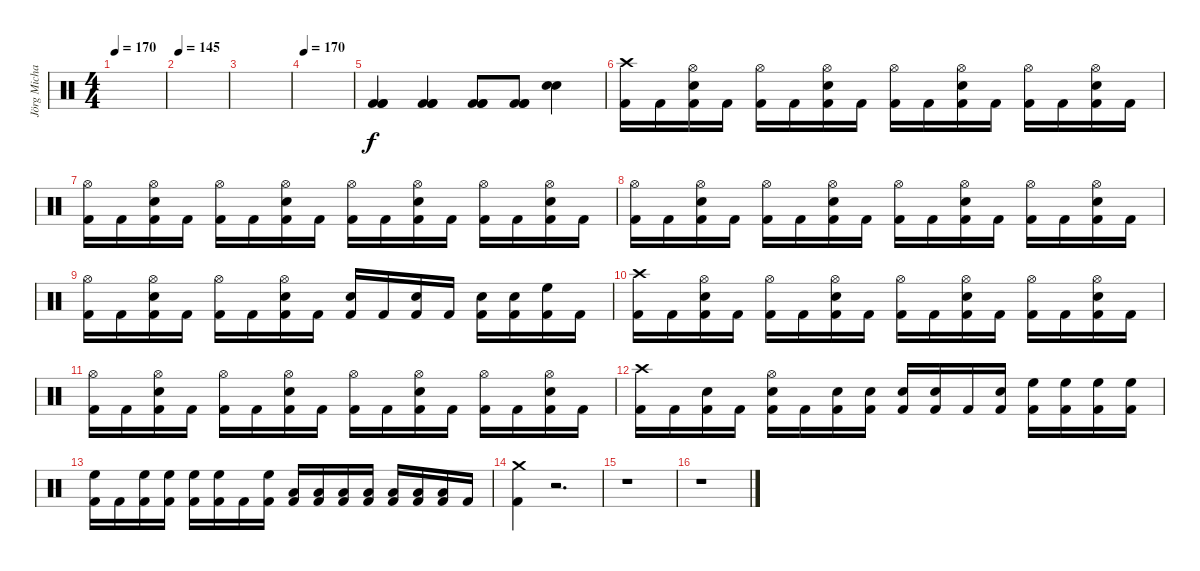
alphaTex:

\track ("Jörg Michael (Drums)" "Jörg Micha") {instrument percussion}
\staff {score}
\articulation defaults
\ts (4 4)
\tempo 170
\clef neutral
\ks c
|
\tempo 145
|
|
\tempo 170
|
("Kick (hit) 2" "Kick (hit) 2" "Kick (hit) 2").4 ("Kick (hit) 2" "Kick (hit) 2" "Kick (hit) 2").4 ("Kick (hit) 2" "Kick (hit) 2" "Kick (hit) 2").8 ("Kick (hit) 2" "Kick (hit) 2" "Kick (hit) 2").8 ("Snare (hit) 2" "Snare (hit) 2").4 |
("Kick (hit) 2" "Crash high (hit)").16 "Kick (hit) 2".16 ("Kick (hit) 2" "Snare (hit) 2" "Hi-Hat (open)").16 "Kick (hit) 2".16 ("Kick (hit) 2" "Hi-Hat (open)").16 "Kick (hit) 2".16 ("Kick (hit) 2" "Snare (hit) 2" "Hi-Hat (open)").16 "Kick (hit) 2".16 ("Kick (hit) 2" "Hi-Hat (open)").16 "Kick (hit) 2".16 ("Kick (hit) 2" "Snare (hit) 2" "Hi-Hat (open)").16 "Kick (hit) 2".16 ("Kick (hit) 2" "Hi-Hat (open)").16 "Kick (hit) 2".16 ("Kick (hit) 2" "Snare (hit) 2" "Hi-Hat (open)").16 "Kick (hit) 2".16 |
("Hi-Hat (open)" "Kick (hit) 2").16 "Kick (hit) 2".16 ("Kick (hit) 2" "Snare (hit) 2" "Hi-Hat (open)").16 "Kick (hit) 2".16 ("Kick (hit) 2" "Hi-Hat (open)").16 "Kick (hit) 2".16 ("Kick (hit) 2" "Snare (hit) 2" "Hi-Hat (open)").16 "Kick (hit) 2".16 ("Kick (hit) 2" "Hi-Hat (open)").16 "Kick (hit) 2".16 ("Kick (hit) 2" "Snare (hit) 2" "Hi-Hat (open)").16 "Kick (hit) 2".16 ("Kick (hit) 2" "Hi-Hat (open)").16 "Kick (hit) 2".16 ("Kick (hit) 2" "Snare (hit) 2" "Hi-Hat (open)").16 "Kick (hit) 2".16 |
("Hi-Hat (open)" "Kick (hit) 2").16 "Kick (hit) 2".16 ("Kick (hit) 2" "Snare (hit) 2" "Hi-Hat (open)").16 "Kick (hit) 2".16 ("Kick (hit) 2" "Hi-Hat (open)").16 "Kick (hit) 2".16 ("Kick (hit) 2" "Snare (hit) 2" "Hi-Hat (open)").16 "Kick (hit) 2".16 ("Kick (hit) 2" "Hi-Hat (open)").16 "Kick (hit) 2".16 ("Kick (hit) 2" "Snare (hit) 2" "Hi-Hat (open)").16 "Kick (hit) 2".16 ("Kick (hit) 2" "Hi-Hat (open)").16 "Kick (hit) 2".16 ("Kick (hit) 2" "Snare (hit) 2" "Hi-Hat (open)").16 "Kick (hit) 2".16 |
("Hi-Hat (open)" "Kick (hit) 2").16 "Kick (hit) 2".16 ("Kick (hit) 2" "Snare (hit) 2" "Hi-Hat (open)").16 "Kick (hit) 2".16 ("Kick (hit) 2" "Hi-Hat (open)").16 "Kick (hit) 2".16 ("Kick (hit) 2" "Snare (hit) 2" "Hi-Hat (open)").16 "Kick (hit) 2".16 ("Snare (hit) 2" "Kick (hit) 2").16 "Kick (hit) 2".16 ("Snare (hit) 2" "Kick (hit) 2").16 "Kick (hit) 2".16 ("Snare (hit) 2" "Kick (hit) 2").16 ("Snare (hit) 2" "Kick (hit) 2").16 ("High Floor Tom (hit)" "Kick (hit) 2").16 "Kick (hit) 2".16 |
("Kick (hit) 2" "Crash high (hit)").16 "Kick (hit) 2".16 ("Kick (hit) 2" "Snare (hit) 2" "Hi-Hat (open)").16 "Kick (hit) 2".16 ("Kick (hit) 2" "Hi-Hat (open)").16 "Kick (hit) 2".16 ("Kick (hit) 2" "Snare (hit) 2" "Hi-Hat (open)").16 "Kick (hit) 2".16 ("Kick (hit) 2" "Hi-Hat (open)").16 "Kick (hit) 2".16 ("Kick (hit) 2" "Snare (hit) 2" "Hi-Hat (open)").16 "Kick (hit) 2".16 ("Kick (hit) 2" "Hi-Hat (open)").16 "Kick (hit) 2".16 ("Kick (hit) 2" "Snare (hit) 2" "Hi-Hat (open)").16 "Kick (hit) 2".16 |
("Hi-Hat (open)" "Kick (hit) 2").16 "Kick (hit) 2".16 ("Kick (hit) 2" "Snare (hit) 2" "Hi-Hat (open)").16 "Kick (hit) 2".16 ("Kick (hit) 2" "Hi-Hat (open)").16 "Kick (hit) 2".16 ("Kick (hit) 2" "Snare (hit) 2" "Hi-Hat (open)").16 "Kick (hit) 2".16 ("Kick (hit) 2" "Hi-Hat (open)").16 "Kick (hit) 2".16 ("Kick (hit) 2" "Snare (hit) 2" "Hi-Hat (open)").16 "Kick (hit) 2".16 ("Kick (hit) 2" "Hi-Hat (open)").16 "Kick (hit) 2".16 ("Kick (hit) 2" "Snare (hit) 2" "Hi-Hat (open)").16 "Kick (hit) 2".16 |
("Crash high (hit)" "Kick (hit) 2").16 "Kick (hit) 2".16 ("Snare (hit) 2" "Kick (hit) 2").16 "Kick (hit) 2".16 ("Snare (hit) 2" "Hi-Hat (open)" "Kick (hit) 2").16 "Kick (hit) 2".16 ("Snare (hit) 2" "Kick (hit) 2").16 ("Snare (hit) 2" "Kick (hit) 2").16 ("Snare (hit) 2" "Kick (hit) 2").16 ("Snare (hit) 2" "Kick (hit) 2").16 "Kick (hit) 2".16 ("Snare (hit) 2" "Kick (hit) 2").16 ("High Floor Tom (hit)" "Kick (hit) 2").16 ("High Floor Tom (hit)" "Kick (hit) 2").16 ("High Floor Tom (hit)" "Kick (hit) 2").16 ("High Floor Tom (hit)" "Kick (hit) 2").16 |
("High Floor Tom (hit)" "Kick (hit) 2").16 "Kick (hit) 2".16 ("High Floor Tom (hit)" "Kick (hit) 2").16 ("High Floor Tom (hit)" "Kick (hit) 2").16 ("High Floor Tom (hit)" "Kick (hit) 2").16 ("High Floor Tom (hit)" "Kick (hit) 2").16 "Kick (hit) 2".16 ("High Floor Tom (hit)" "Kick (hit) 2").16 ("Low Tom (hit)" "Kick (hit) 2").16 ("Low Tom (hit)" "Kick (hit) 2").16 ("Low Tom (hit)" "Kick (hit) 2").16 ("Low Tom (hit)" "Kick (hit) 2").16 ("Low Tom (hit)" "Kick (hit) 2").16 ("Low Tom (hit)" "Kick (hit) 2").16 ("Low Tom (hit)" "Kick (hit) 2").16 "Kick (hit) 2".16 |
("Kick (hit) 2" "Crash medium (hit)").4 r.2{d} |
r.1 |
r.1
